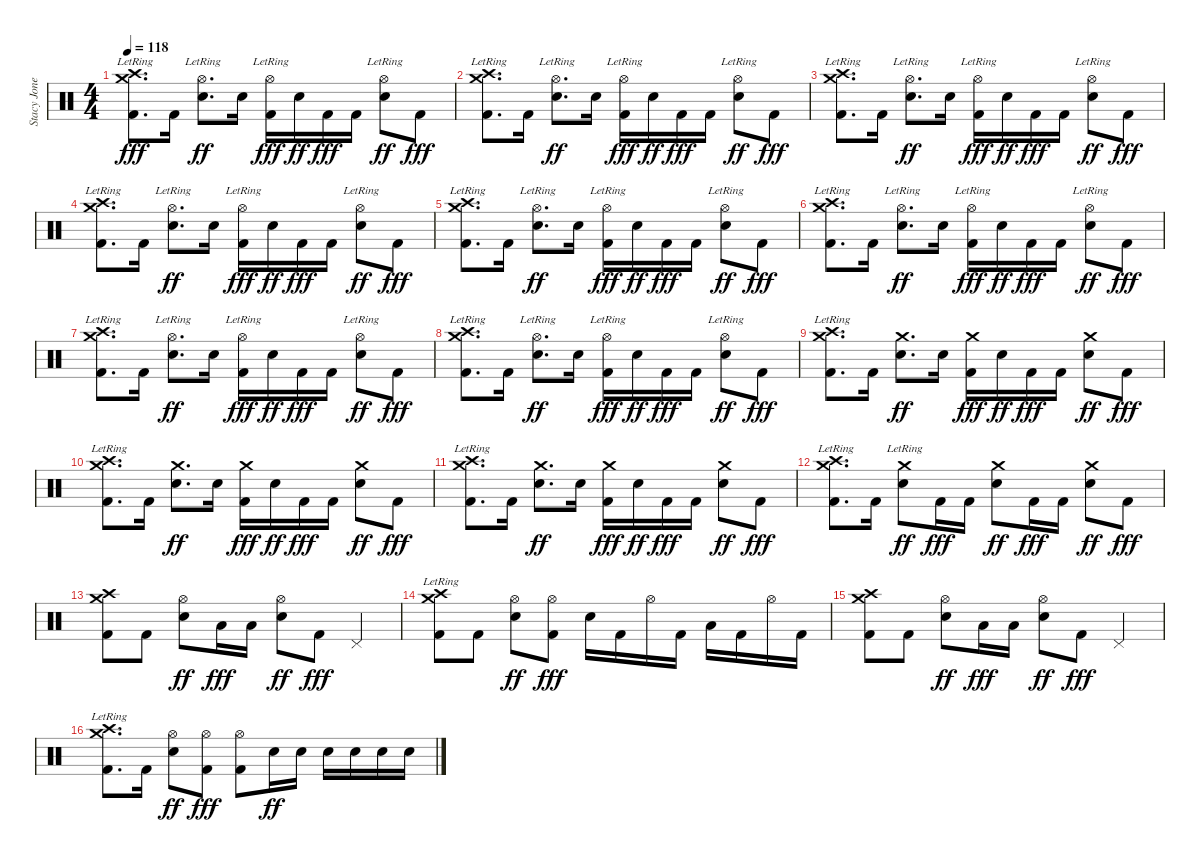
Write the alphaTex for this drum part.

\track ("Stacy Jones: Remo/Sabian HHX/AAX" "Stacy Jone") {instrument percussion}
\staff {score}
\articulation defaults
\ts (4 4)
\tempo 118
\clef neutral
\ks c
("Crash medium (hit)"{lr} "Crash high (hit)"{lr} "Kick (hit) 2").8{d dy fff} "Kick (hit) 2".16 ("Hi-Hat (open)"{lr} "Electric Snare (hit)").8{d dy ff} "Electric Snare (hit)".16 ("Hi-Hat (open)"{lr} "Kick (hit) 2").16{dy fff} "Electric Snare (hit)".16{dy ff} "Kick (hit) 2".16{dy fff} "Kick (hit) 2".16 ("Hi-Hat (open)"{lr} "Electric Snare (hit)").8{dy ff} "Kick (hit) 2".8{dy fff} |
("Crash medium (hit)"{lr} "Crash high (hit)"{lr} "Kick (hit) 2").8{d} "Kick (hit) 2".16 ("Hi-Hat (open)"{lr} "Electric Snare (hit)").8{d dy ff} "Electric Snare (hit)".16 ("Hi-Hat (open)"{lr} "Kick (hit) 2").16{dy fff} "Electric Snare (hit)".16{dy ff} "Kick (hit) 2".16{dy fff} "Kick (hit) 2".16 ("Hi-Hat (open)"{lr} "Electric Snare (hit)").8{dy ff} "Kick (hit) 2".8{dy fff} |
("Crash medium (hit)"{lr} "Crash high (hit)"{lr} "Kick (hit) 2").8{d} "Kick (hit) 2".16 ("Hi-Hat (open)"{lr} "Electric Snare (hit)").8{d dy ff} "Electric Snare (hit)".16 ("Hi-Hat (open)"{lr} "Kick (hit) 2").16{dy fff} "Electric Snare (hit)".16{dy ff} "Kick (hit) 2".16{dy fff} "Kick (hit) 2".16 ("Hi-Hat (open)"{lr} "Electric Snare (hit)").8{dy ff} "Kick (hit) 2".8{dy fff} |
("Crash medium (hit)"{lr} "Crash high (hit)"{lr} "Kick (hit) 2").8{d} "Kick (hit) 2".16 ("Hi-Hat (open)"{lr} "Electric Snare (hit)").8{d dy ff} "Electric Snare (hit)".16 ("Hi-Hat (open)"{lr} "Kick (hit) 2").16{dy fff} "Electric Snare (hit)".16{dy ff} "Kick (hit) 2".16{dy fff} "Kick (hit) 2".16 ("Hi-Hat (open)"{lr} "Electric Snare (hit)").8{dy ff} "Kick (hit) 2".8{dy fff} |
("Crash medium (hit)"{lr} "Crash high (hit)"{lr} "Kick (hit) 2").8{d} "Kick (hit) 2".16 ("Hi-Hat (open)"{lr} "Electric Snare (hit)").8{d dy ff} "Electric Snare (hit)".16 ("Hi-Hat (open)"{lr} "Kick (hit) 2").16{dy fff} "Electric Snare (hit)".16{dy ff} "Kick (hit) 2".16{dy fff} "Kick (hit) 2".16 ("Hi-Hat (open)"{lr} "Electric Snare (hit)").8{dy ff} "Kick (hit) 2".8{dy fff} |
("Crash medium (hit)"{lr} "Crash high (hit)"{lr} "Kick (hit) 2").8{d} "Kick (hit) 2".16 ("Hi-Hat (open)"{lr} "Electric Snare (hit)").8{d dy ff} "Electric Snare (hit)".16 ("Hi-Hat (open)"{lr} "Kick (hit) 2").16{dy fff} "Electric Snare (hit)".16{dy ff} "Kick (hit) 2".16{dy fff} "Kick (hit) 2".16 ("Hi-Hat (open)"{lr} "Electric Snare (hit)").8{dy ff} "Kick (hit) 2".8{dy fff} |
("Crash medium (hit)"{lr} "Crash high (hit)"{lr} "Kick (hit) 2").8{d} "Kick (hit) 2".16 ("Hi-Hat (open)"{lr} "Electric Snare (hit)").8{d dy ff} "Electric Snare (hit)".16 ("Hi-Hat (open)"{lr} "Kick (hit) 2").16{dy fff} "Electric Snare (hit)".16{dy ff} "Kick (hit) 2".16{dy fff} "Kick (hit) 2".16 ("Hi-Hat (open)"{lr} "Electric Snare (hit)").8{dy ff} "Kick (hit) 2".8{dy fff} |
("Crash medium (hit)"{lr} "Crash high (hit)"{lr} "Kick (hit) 2").8{d} "Kick (hit) 2".16 ("Hi-Hat (open)"{lr} "Electric Snare (hit)").8{d dy ff} "Electric Snare (hit)".16 ("Hi-Hat (open)"{lr} "Kick (hit) 2").16{dy fff} "Electric Snare (hit)".16{dy ff} "Kick (hit) 2".16{dy fff} "Kick (hit) 2".16 ("Hi-Hat (open)"{lr} "Electric Snare (hit)").8{dy ff} "Kick (hit) 2".8{dy fff} |
("Crash medium (hit)"{lr} "Crash high (hit)"{lr} "Kick (hit) 2").8{d} "Kick (hit) 2".16 ("Crash medium (hit)" "Electric Snare (hit)").8{d dy ff} "Electric Snare (hit)".16 ("Crash medium (hit)" "Kick (hit) 2").16{dy fff} "Electric Snare (hit)".16{dy ff} "Kick (hit) 2".16{dy fff} "Kick (hit) 2".16 ("Crash medium (hit)" "Electric Snare (hit)").8{dy ff} "Kick (hit) 2".8{dy fff} |
("Crash medium (hit)"{lr} "Crash high (hit)"{lr} "Kick (hit) 2").8{d} "Kick (hit) 2".16 ("Crash medium (hit)" "Electric Snare (hit)").8{d dy ff} "Electric Snare (hit)".16 ("Crash medium (hit)" "Kick (hit) 2").16{dy fff} "Electric Snare (hit)".16{dy ff} "Kick (hit) 2".16{dy fff} "Kick (hit) 2".16 ("Crash medium (hit)" "Electric Snare (hit)").8{dy ff} "Kick (hit) 2".8{dy fff} |
("Crash medium (hit)"{lr} "Crash high (hit)"{lr} "Kick (hit) 2").8{d} "Kick (hit) 2".16 ("Crash medium (hit)" "Electric Snare (hit)").8{d dy ff} "Electric Snare (hit)".16 ("Crash medium (hit)" "Kick (hit) 2").16{dy fff} "Electric Snare (hit)".16{dy ff} "Kick (hit) 2".16{dy fff} "Kick (hit) 2".16 ("Crash medium (hit)" "Electric Snare (hit)").8{dy ff} "Kick (hit) 2".8{dy fff} |
("Crash medium (hit)"{lr} "Crash high (hit)"{lr} "Kick (hit) 2").8{d} "Kick (hit) 2".16 ("Crash medium (hit)"{lr} "Electric Snare (hit)").8{dy ff} "Kick (hit) 2".16{dy fff} "Kick (hit) 2".16 ("Crash medium (hit)" "Electric Snare (hit)").8{dy ff} "Kick (hit) 2".16{dy fff} "Kick (hit) 2".16 ("Crash medium (hit)" "Electric Snare (hit)").8{dy ff} "Kick (hit) 2".8{dy fff} |
("Crash medium (hit)" "Crash high (hit)" "Kick (hit) 2").8 "Kick (hit) 2".8 ("Hi-Hat (open)" "Electric Snare (hit)").8{dy ff} "Low Tom (hit)".16{dy fff} "Low Tom (hit)".16 ("Hi-Hat (open)" "Electric Snare (hit)").8{dy ff} "Kick (hit) 2".8{dy fff} "Pedal Hi-Hat (hit)".4 |
("Crash medium (hit)"{lr} "Crash high (hit)"{lr} "Kick (hit) 2").8 "Kick (hit) 2".8 ("Hi-Hat (open)" "Electric Snare (hit)").8{dy ff} ("Hi-Hat (open)" "Kick (hit) 2").8{dy fff} "Electric Snare (hit)".16 "Kick (hit) 2".16 "Hi-Hat (open)".16 "Kick (hit) 2".16 "Low Tom (hit)".16 "Kick (hit) 2".16 "Hi-Hat (open)".16 "Kick (hit) 2".16 |
("Crash medium (hit)" "Crash high (hit)" "Kick (hit) 2").8 "Kick (hit) 2".8 ("Hi-Hat (open)" "Electric Snare (hit)").8{dy ff} "Low Tom (hit)".16{dy fff} "Low Tom (hit)".16 ("Hi-Hat (open)" "Electric Snare (hit)").8{dy ff} "Kick (hit) 2".8{dy fff} "Pedal Hi-Hat (hit)".4 |
("Crash medium (hit)"{lr} "Crash high (hit)"{lr} "Kick (hit) 2").8{d} "Kick (hit) 2".16 ("Hi-Hat (open)" "Electric Snare (hit)").8{dy ff} ("Hi-Hat (open)" "Kick (hit) 2").8{dy fff} ("Hi-Hat (open)" "Kick (hit) 2").8 "Electric Snare (hit)".16{dy ff} "Electric Snare (hit)".16 "Electric Snare (hit)".16 "Electric Snare (hit)".16 "Electric Snare (hit)".16 "Electric Snare (hit)".16
